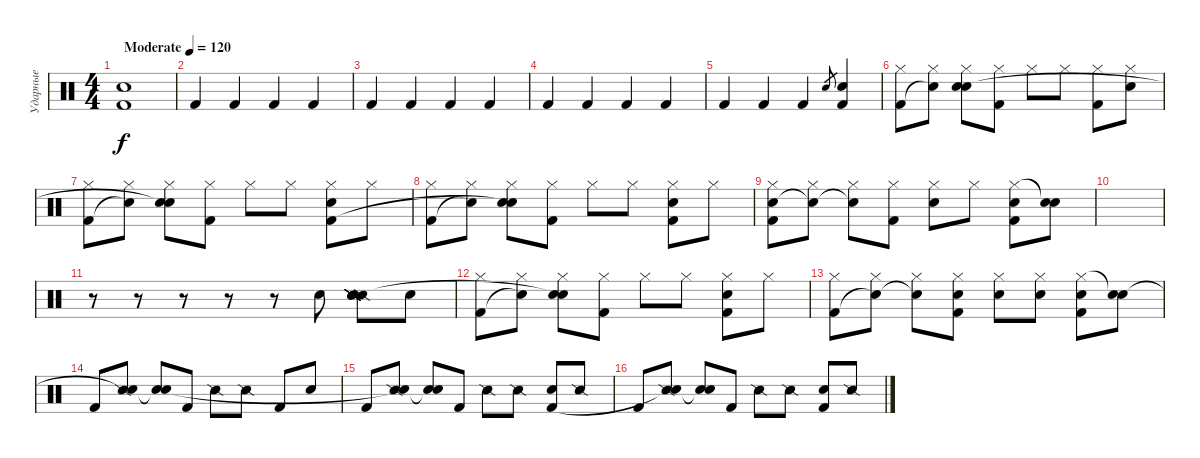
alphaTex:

\track ("Ударные" "Ударные") {instrument percussion}
\staff {score}
\articulation defaults
\ts (4 4)
\tempo (120 "Moderate")
\clef neutral
\ks c
("Electric Snare (hit)" "Kick (hit) 2").1{dy f} |
"Kick (hit) 2".4 "Kick (hit) 2".4 "Kick (hit) 2".4 "Kick (hit) 2".4 |
"Kick (hit) 2".4 "Kick (hit) 2".4 "Kick (hit) 2".4 "Kick (hit) 2".4 |
"Kick (hit) 2".4 "Kick (hit) 2".4 "Kick (hit) 2".4 "Kick (hit) 2".4 |
"Kick (hit) 2".4 "Kick (hit) 2".4 "Kick (hit) 2".4 "Electric Snare (hit)".8{gr} ("Electric Snare (hit)" "Kick (hit) 2").4 |
("Hi-Hat (closed)" "Kick (hit) 2").8 ("Hi-Hat (closed)" "Snare (hit)"{t}).8 ("Hi-Hat (closed)" "Electric Snare (hit)" "Snare (hit)").8 ("Hi-Hat (closed)" "Kick (hit) 2").8 "Hi-Hat (closed)".8 "Hi-Hat (closed)".8 ("Hi-Hat (closed)" "Kick (hit) 2").8 ("Hi-Hat (closed)" "Electric Snare (hit)").8 |
("Hi-Hat (closed)" "Kick (hit) 2").8 ("Hi-Hat (closed)" "Snare (hit)"{t}).8 ("Hi-Hat (closed)" "Electric Snare (hit)" "Snare (hit)"{t}).8 ("Hi-Hat (closed)" "Kick (hit) 2").8 "Hi-Hat (closed)".8 "Hi-Hat (closed)".8 ("Hi-Hat (closed)" "Electric Snare (hit)" "Kick (hit) 2").8 "Hi-Hat (closed)".8 |
("Hi-Hat (closed)" "Kick (hit) 2").8 ("Hi-Hat (closed)" "Snare (hit)"{t}).8 ("Hi-Hat (closed)" "Electric Snare (hit)" "Snare (hit)"{t}).8 ("Hi-Hat (closed)" "Kick (hit) 2").8 "Hi-Hat (closed)".8 "Hi-Hat (closed)".8 ("Hi-Hat (closed)" "Electric Snare (hit)" "Kick (hit) 2").8 "Hi-Hat (closed)".8 |
("Hi-Hat (closed)" "Electric Snare (hit)" "Kick (hit) 2").8 ("Hi-Hat (closed)" "Snare (hit)"{t}).8 ("Hi-Hat (closed)" "Snare (hit)"{t}).8 ("Hi-Hat (closed)" "Kick (hit) 2").8 ("Hi-Hat (closed)" "Electric Snare (hit)").8 "Hi-Hat (closed)".8 ("Hi-Hat (closed)" "Electric Snare (hit)" "Kick (hit) 2").8 ("Snare (hit)"{t} "Electric Snare (hit)").8 |
|
r.8 r.8 r.8 r.8 r.8 "Electric Snare (hit)".8 ("Snare (side stick) 2" "Snare (side stick) 2" "Snare (side stick) 2" "Snare (side stick) 2" "Snare (side stick) 2" "Snare (side stick) 2").8 "Electric Snare (hit)".8 |
("Hi-Hat (closed)" "Kick (hit) 2").8 ("Hi-Hat (closed)" "Snare (hit)"{t}).8 ("Hi-Hat (closed)" "Electric Snare (hit)" "Snare (hit)"{t}).8 ("Hi-Hat (closed)" "Kick (hit) 2").8 "Hi-Hat (closed)".8 "Hi-Hat (closed)".8 ("Hi-Hat (closed)" "Electric Snare (hit)" "Kick (hit) 2").8 "Hi-Hat (closed)".8 |
("Hi-Hat (closed)" "Kick (hit) 2").8 ("Hi-Hat (closed)" "Snare (hit)"{t}).8 ("Hi-Hat (closed)" "Snare (hit)"{t}).8 ("Hi-Hat (closed)" "Electric Snare (hit)" "Kick (hit) 2").8 ("Hi-Hat (closed)" "Electric Snare (hit)").8 ("Hi-Hat (closed)" "Electric Snare (hit)").8 ("Hi-Hat (closed)" "Electric Snare (hit)" "Kick (hit) 2").8 ("Snare (hit)"{t} "Electric Snare (hit)").8 |
"Kick (hit) 2".8 ("Snare (side stick) 2" "Snare (hit)"{t}).8 ("Electric Snare (hit)" "Snare (hit)"{t}).8 "Kick (hit) 2".8 "Snare (side stick) 2".8 "Snare (side stick) 2".8 "Kick (hit) 2".8 "Electric Snare (hit)".8 |
"Kick (hit) 2".8 ("Snare (side stick) 2" "Snare (hit)"{t}).8 ("Electric Snare (hit)" "Snare (hit)"{t}).8 "Kick (hit) 2".8 "Snare (side stick) 2".8 "Snare (side stick) 2".8 ("Electric Snare (hit)" "Kick (hit) 2").8 "Snare (side stick) 2".8 |
"Kick (hit) 2".8 ("Snare (side stick) 2" "Snare (hit)"{t}).8 ("Electric Snare (hit)" "Snare (hit)"{t}).8 "Kick (hit) 2".8 "Snare (side stick) 2".8 "Snare (side stick) 2".8 ("Electric Snare (hit)" "Kick (hit) 2").8 "Snare (side stick) 2".8
